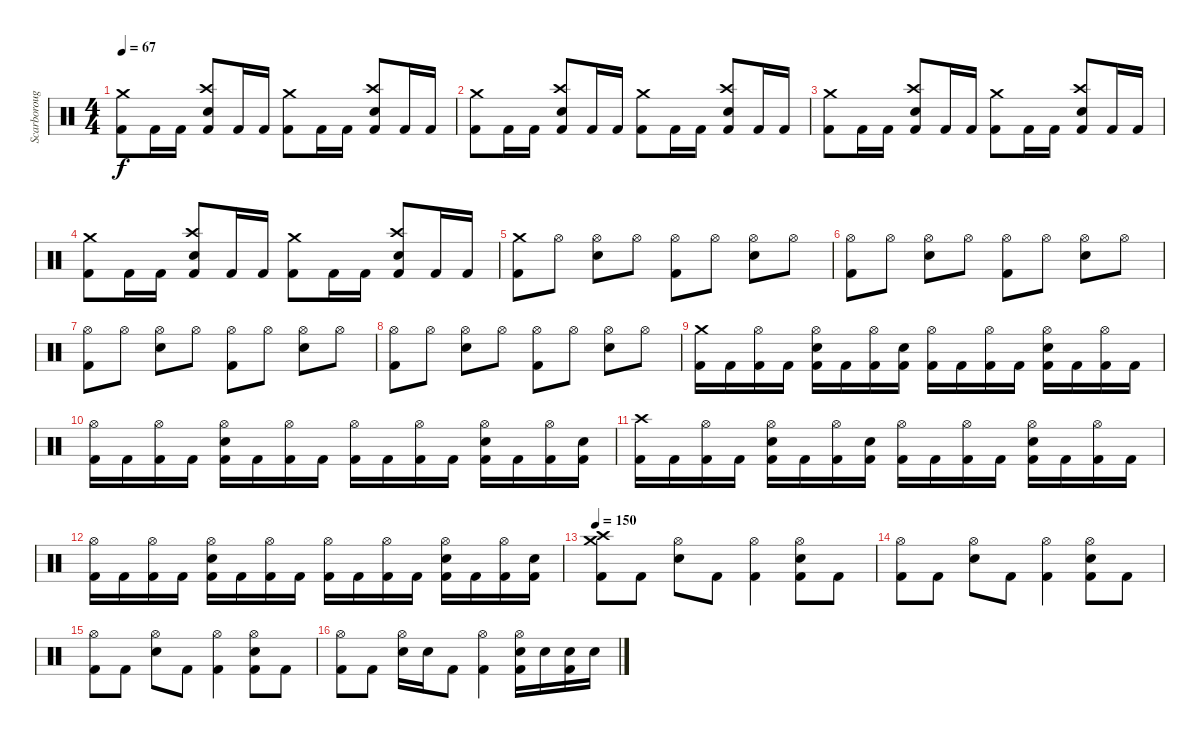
\track ("Scarborough" "Scarboroug") {instrument percussion}
\staff {score}
\articulation defaults
\ts (4 4)
\tempo 67
\clef neutral
\ks c
("Crash medium (hit)" "Kick (hit) 2").8{dy f} "Kick (hit) 2".16 "Kick (hit) 2".16 ("Crash high (hit)" "Kick (hit) 2" "Snare (hit) 2").8 "Kick (hit) 2".16 "Kick (hit) 2".16 ("Crash medium (hit)" "Kick (hit) 2").8 "Kick (hit) 2".16 "Kick (hit) 2".16 ("Crash high (hit)" "Kick (hit) 2" "Snare (hit) 2").8 "Kick (hit) 2".16 "Kick (hit) 2".16 |
("Crash medium (hit)" "Kick (hit) 2").8 "Kick (hit) 2".16 "Kick (hit) 2".16 ("Crash high (hit)" "Kick (hit) 2" "Snare (hit) 2").8 "Kick (hit) 2".16 "Kick (hit) 2".16 ("Crash medium (hit)" "Kick (hit) 2").8 "Kick (hit) 2".16 "Kick (hit) 2".16 ("Crash high (hit)" "Kick (hit) 2" "Snare (hit) 2").8 "Kick (hit) 2".16 "Kick (hit) 2".16 |
("Crash medium (hit)" "Kick (hit) 2").8 "Kick (hit) 2".16 "Kick (hit) 2".16 ("Crash high (hit)" "Kick (hit) 2" "Snare (hit) 2").8 "Kick (hit) 2".16 "Kick (hit) 2".16 ("Crash medium (hit)" "Kick (hit) 2").8 "Kick (hit) 2".16 "Kick (hit) 2".16 ("Crash high (hit)" "Kick (hit) 2" "Snare (hit) 2").8 "Kick (hit) 2".16 "Kick (hit) 2".16 |
("Crash medium (hit)" "Kick (hit) 2").8 "Kick (hit) 2".16 "Kick (hit) 2".16 ("Crash high (hit)" "Kick (hit) 2" "Snare (hit) 2").8 "Kick (hit) 2".16 "Kick (hit) 2".16 ("Crash medium (hit)" "Kick (hit) 2").8 "Kick (hit) 2".16 "Kick (hit) 2".16 ("Crash high (hit)" "Kick (hit) 2" "Snare (hit) 2").8 "Kick (hit) 2".16 "Kick (hit) 2".16 |
("Crash medium (hit)" "Kick (hit) 2").8 "Hi-Hat (open)".8 ("Hi-Hat (open)" "Snare (hit) 2").8 "Hi-Hat (open)".8 ("Hi-Hat (open)" "Kick (hit) 2").8 "Hi-Hat (open)".8 ("Hi-Hat (open)" "Snare (hit) 2").8 "Hi-Hat (open)".8 |
("Hi-Hat (open)" "Kick (hit) 2").8 "Hi-Hat (open)".8 ("Hi-Hat (open)" "Snare (hit) 2").8 "Hi-Hat (open)".8 ("Hi-Hat (open)" "Kick (hit) 2").8 "Hi-Hat (open)".8 ("Hi-Hat (open)" "Snare (hit) 2").8 "Hi-Hat (open)".8 |
("Hi-Hat (open)" "Kick (hit) 2").8 "Hi-Hat (open)".8 ("Hi-Hat (open)" "Snare (hit) 2").8 "Hi-Hat (open)".8 ("Hi-Hat (open)" "Kick (hit) 2").8 "Hi-Hat (open)".8 ("Hi-Hat (open)" "Snare (hit) 2").8 "Hi-Hat (open)".8 |
("Hi-Hat (open)" "Kick (hit) 2").8 "Hi-Hat (open)".8 ("Hi-Hat (open)" "Snare (hit) 2").8 "Hi-Hat (open)".8 ("Hi-Hat (open)" "Kick (hit) 2").8 "Hi-Hat (open)".8 ("Hi-Hat (open)" "Snare (hit) 2").8 "Hi-Hat (open)".8 |
("Crash medium (hit)" "Kick (hit) 2").16 "Kick (hit) 2".16 ("Hi-Hat (open)" "Kick (hit) 2").16 "Kick (hit) 2".16 ("Hi-Hat (open)" "Kick (hit) 2" "Snare (hit) 2").16 "Kick (hit) 2".16 ("Hi-Hat (open)" "Kick (hit) 2").16 ("Kick (hit) 2" "Snare (hit) 2").16 ("Hi-Hat (open)" "Kick (hit) 2").16 "Kick (hit) 2".16 ("Hi-Hat (open)" "Kick (hit) 2").16 "Kick (hit) 2".16 ("Hi-Hat (open)" "Kick (hit) 2" "Snare (hit) 2").16 "Kick (hit) 2".16 ("Hi-Hat (open)" "Kick (hit) 2").16 "Kick (hit) 2".16 |
("Hi-Hat (open)" "Kick (hit) 2").16 "Kick (hit) 2".16 ("Hi-Hat (open)" "Kick (hit) 2").16 "Kick (hit) 2".16 ("Hi-Hat (open)" "Kick (hit) 2" "Snare (hit) 2").16 "Kick (hit) 2".16 ("Hi-Hat (open)" "Kick (hit) 2").16 "Kick (hit) 2".16 ("Hi-Hat (open)" "Kick (hit) 2").16 "Kick (hit) 2".16 ("Hi-Hat (open)" "Kick (hit) 2").16 "Kick (hit) 2".16 ("Hi-Hat (open)" "Kick (hit) 2" "Snare (hit) 2").16 "Kick (hit) 2".16 ("Hi-Hat (open)" "Kick (hit) 2").16 ("Kick (hit) 2" "Snare (hit) 2").16 |
("Crash high (hit)" "Kick (hit) 2").16 "Kick (hit) 2".16 ("Hi-Hat (open)" "Kick (hit) 2").16 "Kick (hit) 2".16 ("Hi-Hat (open)" "Kick (hit) 2" "Snare (hit) 2").16 "Kick (hit) 2".16 ("Hi-Hat (open)" "Kick (hit) 2").16 ("Kick (hit) 2" "Snare (hit) 2").16 ("Hi-Hat (open)" "Kick (hit) 2").16 "Kick (hit) 2".16 ("Hi-Hat (open)" "Kick (hit) 2").16 "Kick (hit) 2".16 ("Hi-Hat (open)" "Kick (hit) 2" "Snare (hit) 2").16 "Kick (hit) 2".16 ("Hi-Hat (open)" "Kick (hit) 2").16 "Kick (hit) 2".16 |
("Hi-Hat (open)" "Kick (hit) 2").16 "Kick (hit) 2".16 ("Hi-Hat (open)" "Kick (hit) 2").16 "Kick (hit) 2".16 ("Hi-Hat (open)" "Kick (hit) 2" "Snare (hit) 2").16 "Kick (hit) 2".16 ("Hi-Hat (open)" "Kick (hit) 2").16 "Kick (hit) 2".16 ("Hi-Hat (open)" "Kick (hit) 2").16 "Kick (hit) 2".16 ("Hi-Hat (open)" "Kick (hit) 2").16 "Kick (hit) 2".16 ("Hi-Hat (open)" "Kick (hit) 2" "Snare (hit) 2").16 "Kick (hit) 2".16 ("Hi-Hat (open)" "Kick (hit) 2").16 ("Kick (hit) 2" "Snare (hit) 2").16 |
\tempo 150
("Crash high (hit)" "Kick (hit) 2" "Crash medium (hit)").8 "Kick (hit) 2".8 ("Hi-Hat (open)" "Snare (hit) 2").8 "Kick (hit) 2".8 ("Hi-Hat (open)" "Kick (hit) 2").4 ("Hi-Hat (open)" "Kick (hit) 2" "Snare (hit) 2").8 "Kick (hit) 2".8 |
("Hi-Hat (open)" "Kick (hit) 2").8 "Kick (hit) 2".8 ("Hi-Hat (open)" "Snare (hit) 2").8 "Kick (hit) 2".8 ("Hi-Hat (open)" "Kick (hit) 2").4 ("Hi-Hat (open)" "Kick (hit) 2" "Snare (hit) 2").8 "Kick (hit) 2".8 |
("Hi-Hat (open)" "Kick (hit) 2").8 "Kick (hit) 2".8 ("Hi-Hat (open)" "Snare (hit) 2").8 "Kick (hit) 2".8 ("Hi-Hat (open)" "Kick (hit) 2").4 ("Hi-Hat (open)" "Kick (hit) 2" "Snare (hit) 2").8 "Kick (hit) 2".8 |
("Hi-Hat (open)" "Kick (hit) 2").8 "Kick (hit) 2".8 ("Hi-Hat (open)" "Snare (hit) 2").16 "Snare (hit) 2".16 "Kick (hit) 2".8 ("Hi-Hat (open)" "Kick (hit) 2").4 ("Hi-Hat (open)" "Kick (hit) 2" "Snare (hit) 2").16 "Snare (hit) 2".16 ("Kick (hit) 2" "Snare (hit) 2").16 "Snare (hit) 2".16
